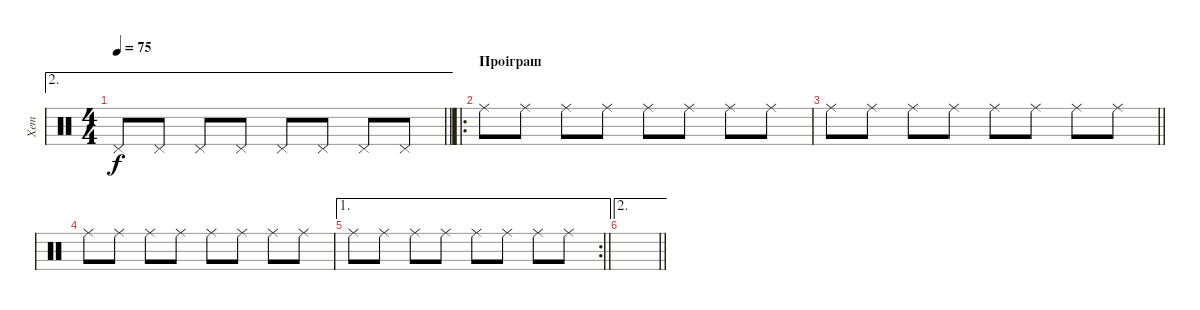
\track ("Хет" "Хет") {instrument percussion}
\staff {score}
\articulation defaults
\ae 2
\ts (4 4)
\tempo 75
\clef neutral
\barLineRight lightlight
\ks c "Pedal Hi-Hat (hit)".8{dy f} "Pedal Hi-Hat (hit)".8 "Pedal Hi-Hat (hit)".8 "Pedal Hi-Hat (hit)".8 "Pedal Hi-Hat (hit)".8 "Pedal Hi-Hat (hit)".8 "Pedal Hi-Hat (hit)".8 "Pedal Hi-Hat (hit)".8
|
\ro
\section ("" "Проіграш")
"Ride (middle)".8 "Ride (middle)".8 "Ride (middle)".8 "Ride (middle)".8 "Ride (middle)".8 "Ride (middle)".8 "Ride (middle)".8 "Ride (middle)".8 |
\barLineRight lightlight "Ride (middle)".8 "Ride (middle)".8 "Ride (middle)".8 "Ride (middle)".8 "Ride (middle)".8 "Ride (middle)".8 "Ride (middle)".8 "Ride (middle)".8
|
"Ride (middle)".8 "Ride (middle)".8 "Ride (middle)".8 "Ride (middle)".8 "Ride (middle)".8 "Ride (middle)".8 "Ride (middle)".8 "Ride (middle)".8 |
\ae 1
\rc 2
\barLineRight lightlight "Ride (middle)".8 "Ride (middle)".8 "Ride (middle)".8 "Ride (middle)".8 "Ride (middle)".8 "Ride (middle)".8 "Ride (middle)".8 "Ride (middle)".8
|
\ae 2
\barLineRight lightlight
